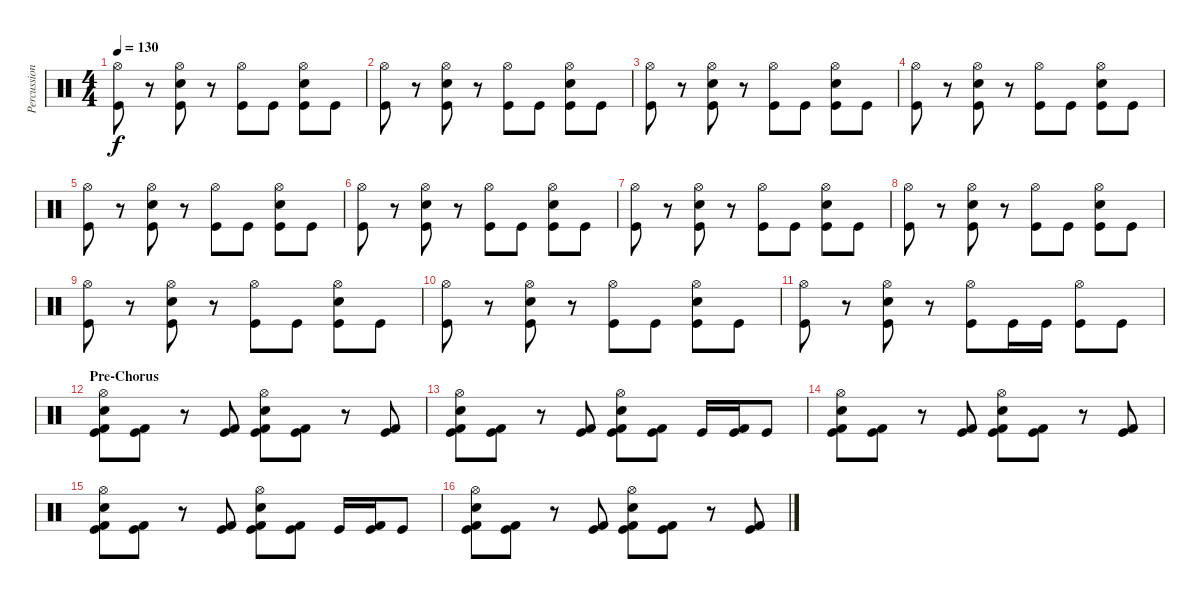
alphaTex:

\track ("Percussion" "Percussion") {instrument percussion}
\staff {score}
\articulation defaults
\ts (4 4)
\tempo 130
\clef neutral
\ks c
("Hi-Hat (open)" "Kick (hit)").8{dy f volume 16} r.8{volume 14} ("Hi-Hat (open)" "Kick (hit)" "Snare (hit) 2").8 r.8 ("Hi-Hat (open)" "Kick (hit)").8{volume 16} "Kick (hit)".8{volume 14} ("Hi-Hat (open)" "Kick (hit)" "Snare (hit) 2").8 "Kick (hit)".8 |
("Hi-Hat (open)" "Kick (hit)").8{volume 16} r.8{volume 14} ("Hi-Hat (open)" "Kick (hit)" "Snare (hit) 2").8 r.8 ("Hi-Hat (open)" "Kick (hit)").8{volume 16} "Kick (hit)".8{volume 14} ("Hi-Hat (open)" "Kick (hit)" "Snare (hit) 2").8 "Kick (hit)".8 |
("Hi-Hat (open)" "Kick (hit)").8{volume 16} r.8{volume 14} ("Hi-Hat (open)" "Kick (hit)" "Snare (hit) 2").8 r.8 ("Hi-Hat (open)" "Kick (hit)").8{volume 16} "Kick (hit)".8{volume 14} ("Hi-Hat (open)" "Kick (hit)" "Snare (hit) 2").8 "Kick (hit)".8 |
("Hi-Hat (open)" "Kick (hit)").8{volume 16} r.8{volume 14} ("Hi-Hat (open)" "Kick (hit)" "Snare (hit) 2").8 r.8 ("Hi-Hat (open)" "Kick (hit)").8{volume 16} "Kick (hit)".8{volume 14} ("Hi-Hat (open)" "Kick (hit)" "Snare (hit) 2").8 "Kick (hit)".8 |
("Hi-Hat (open)" "Kick (hit)").8{volume 16} r.8{volume 14} ("Hi-Hat (open)" "Kick (hit)" "Snare (hit) 2").8 r.8 ("Hi-Hat (open)" "Kick (hit)").8{volume 16} "Kick (hit)".8{volume 14} ("Hi-Hat (open)" "Kick (hit)" "Snare (hit) 2").8 "Kick (hit)".8 |
("Hi-Hat (open)" "Kick (hit)").8{volume 16} r.8{volume 14} ("Hi-Hat (open)" "Kick (hit)" "Snare (hit) 2").8 r.8 ("Hi-Hat (open)" "Kick (hit)").8{volume 16} "Kick (hit)".8{volume 14} ("Hi-Hat (open)" "Kick (hit)" "Snare (hit) 2").8 "Kick (hit)".8 |
("Hi-Hat (open)" "Kick (hit)").8{volume 16} r.8{volume 14} ("Hi-Hat (open)" "Kick (hit)" "Snare (hit) 2").8 r.8 ("Hi-Hat (open)" "Kick (hit)").8{volume 16} "Kick (hit)".8{volume 14} ("Hi-Hat (open)" "Kick (hit)" "Snare (hit) 2").8 "Kick (hit)".8 |
("Hi-Hat (open)" "Kick (hit)").8{volume 16} r.8{volume 14} ("Hi-Hat (open)" "Kick (hit)" "Snare (hit) 2").8 r.8 ("Hi-Hat (open)" "Kick (hit)").8{volume 16} "Kick (hit)".8{volume 14} ("Hi-Hat (open)" "Kick (hit)" "Snare (hit) 2").8 "Kick (hit)".8 |
("Hi-Hat (open)" "Kick (hit)").8{volume 16} r.8{volume 14} ("Hi-Hat (open)" "Kick (hit)" "Snare (hit) 2").8 r.8 ("Hi-Hat (open)" "Kick (hit)").8{volume 16} "Kick (hit)".8{volume 14} ("Hi-Hat (open)" "Kick (hit)" "Snare (hit) 2").8 "Kick (hit)".8 |
("Hi-Hat (open)" "Kick (hit)").8{volume 16} r.8{volume 14} ("Hi-Hat (open)" "Kick (hit)" "Snare (hit) 2").8 r.8 ("Hi-Hat (open)" "Kick (hit)").8{volume 16} "Kick (hit)".8{volume 14} ("Hi-Hat (open)" "Kick (hit)" "Snare (hit) 2").8 "Kick (hit)".8 |
("Hi-Hat (open)" "Kick (hit)").8{volume 16} r.8{volume 14} ("Hi-Hat (open)" "Kick (hit)" "Snare (hit) 2").8 r.8 ("Hi-Hat (open)" "Kick (hit)").8{volume 16} "Kick (hit)".16{volume 16} "Kick (hit)".16 ("Hi-Hat (open)" "Kick (hit)").8 "Kick (hit)".8 |
\section ("" "Pre-Chorus")
("Kick (hit) 2" "Kick (hit)" "Snare (hit) 2" "Hi-Hat (open)").8 ("Kick (hit) 2" "Kick (hit)").8 r.8 ("Kick (hit) 2" "Kick (hit)").8 ("Kick (hit) 2" "Kick (hit)" "Snare (hit) 2" "Hi-Hat (open)").8 ("Kick (hit) 2" "Kick (hit)").8 r.8 ("Kick (hit) 2" "Kick (hit)").8 |
("Kick (hit) 2" "Kick (hit)" "Snare (hit) 2" "Hi-Hat (open)").8 ("Kick (hit) 2" "Kick (hit)").8 r.8 ("Kick (hit) 2" "Kick (hit)").8 ("Kick (hit) 2" "Kick (hit)" "Snare (hit) 2" "Hi-Hat (open)").8 ("Kick (hit) 2" "Kick (hit)").8 "Kick (hit)".16 ("Kick (hit) 2" "Kick (hit)").16 "Kick (hit)".8 |
("Kick (hit) 2" "Kick (hit)" "Snare (hit) 2" "Hi-Hat (open)").8 ("Kick (hit) 2" "Kick (hit)").8 r.8 ("Kick (hit) 2" "Kick (hit)").8 ("Kick (hit) 2" "Kick (hit)" "Snare (hit) 2" "Hi-Hat (open)").8 ("Kick (hit) 2" "Kick (hit)").8 r.8 ("Kick (hit) 2" "Kick (hit)").8 |
("Kick (hit) 2" "Kick (hit)" "Snare (hit) 2" "Hi-Hat (open)").8 ("Kick (hit) 2" "Kick (hit)").8 r.8 ("Kick (hit) 2" "Kick (hit)").8 ("Kick (hit) 2" "Kick (hit)" "Snare (hit) 2" "Hi-Hat (open)").8 ("Kick (hit) 2" "Kick (hit)").8 "Kick (hit)".16 ("Kick (hit) 2" "Kick (hit)").16 "Kick (hit)".8 |
("Kick (hit) 2" "Kick (hit)" "Snare (hit) 2" "Hi-Hat (open)").8 ("Kick (hit) 2" "Kick (hit)").8 r.8 ("Kick (hit) 2" "Kick (hit)").8 ("Kick (hit) 2" "Kick (hit)" "Snare (hit) 2" "Hi-Hat (open)").8 ("Kick (hit) 2" "Kick (hit)").8 r.8 ("Kick (hit) 2" "Kick (hit)").8
